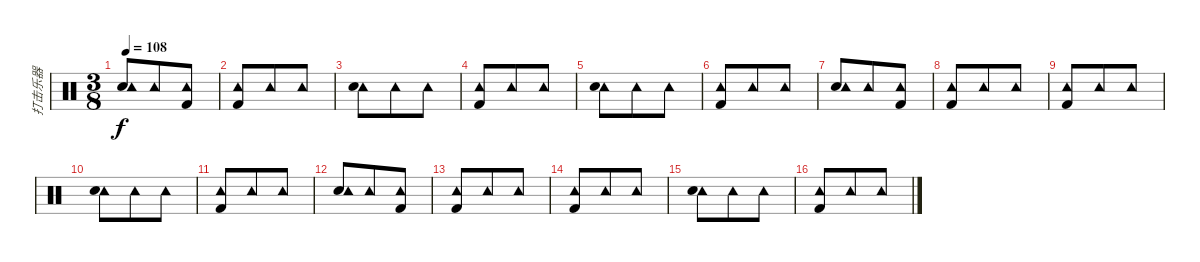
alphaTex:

\track ("打击乐器" "打击乐器") {instrument percussion}
\staff {score}
\articulation defaults
\ts (3 8)
\tempo 108
\clef neutral
\ks c
("Snare (hit) 2" "Tambourine (hit)").8{dy f} "Tambourine (hit)".8 ("Tambourine (hit)" "Kick (hit) 2").8 |
("Tambourine (hit)" "Kick (hit) 2").8 "Tambourine (hit)".8 "Tambourine (hit)".8 |
("Tambourine (hit)" "Snare (hit) 2").8 "Tambourine (hit)".8 "Tambourine (hit)".8 |
("Tambourine (hit)" "Kick (hit) 2").8 "Tambourine (hit)".8 "Tambourine (hit)".8 |
("Tambourine (hit)" "Snare (hit) 2").8 "Tambourine (hit)".8 "Tambourine (hit)".8 |
("Tambourine (hit)" "Kick (hit) 2").8 "Tambourine (hit)".8 "Tambourine (hit)".8 |
("Snare (hit) 2" "Tambourine (hit)").8 "Tambourine (hit)".8 ("Tambourine (hit)" "Kick (hit) 2").8 |
("Tambourine (hit)" "Kick (hit) 2").8 "Tambourine (hit)".8 "Tambourine (hit)".8 |
("Tambourine (hit)" "Kick (hit) 2").8 "Tambourine (hit)".8 "Tambourine (hit)".8 |
("Tambourine (hit)" "Snare (hit) 2").8 "Tambourine (hit)".8 "Tambourine (hit)".8 |
("Tambourine (hit)" "Kick (hit) 2").8 "Tambourine (hit)".8 "Tambourine (hit)".8 |
("Snare (hit) 2" "Tambourine (hit)").8 "Tambourine (hit)".8 ("Tambourine (hit)" "Kick (hit) 2").8 |
("Tambourine (hit)" "Kick (hit) 2").8 "Tambourine (hit)".8 "Tambourine (hit)".8 |
("Tambourine (hit)" "Kick (hit) 2").8 "Tambourine (hit)".8 "Tambourine (hit)".8 |
("Tambourine (hit)" "Snare (hit) 2").8 "Tambourine (hit)".8 "Tambourine (hit)".8 |
("Tambourine (hit)" "Kick (hit) 2").8 "Tambourine (hit)".8 "Tambourine (hit)".8
